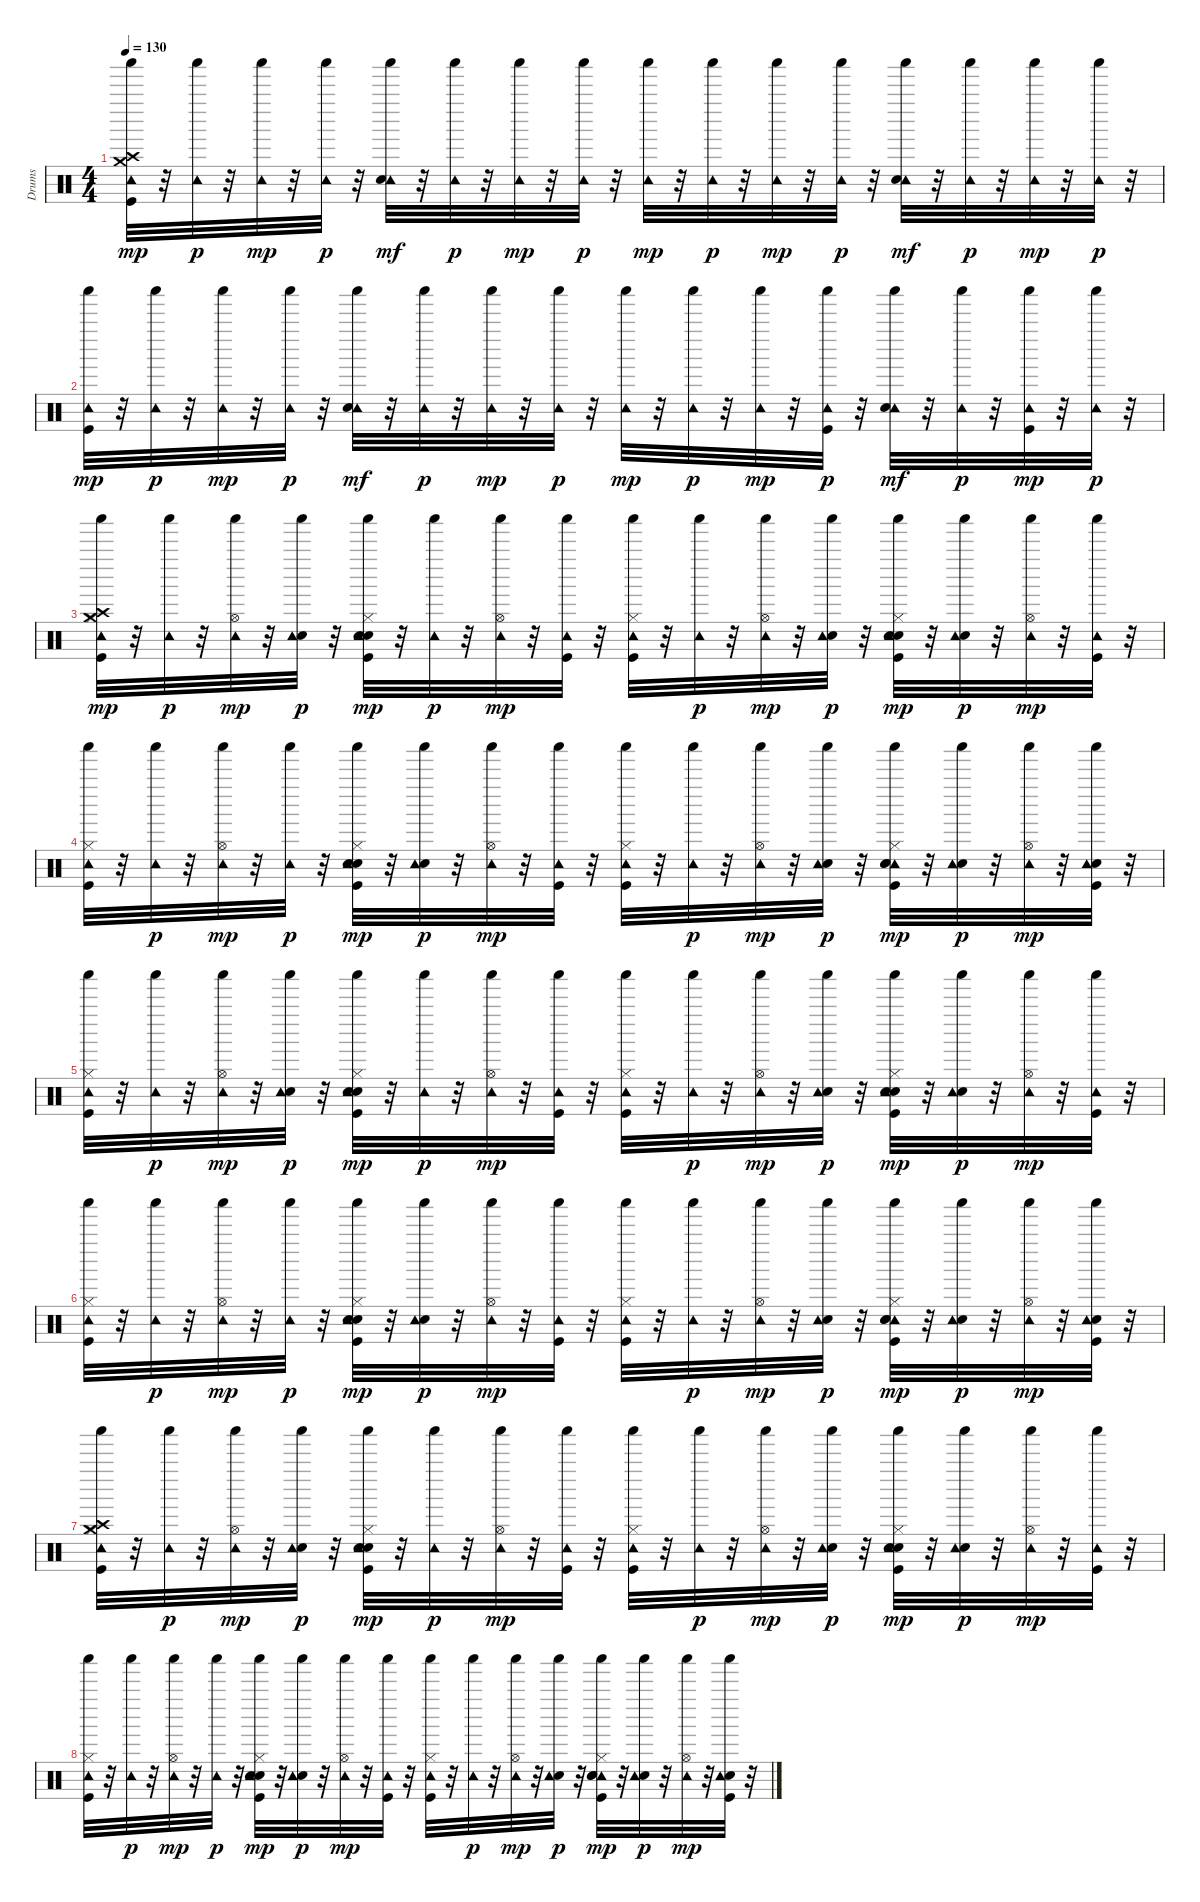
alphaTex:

\track ("Drums" "Drums") {instrument percussion}
\staff {score}
\articulation defaults
\ts (4 4)
\tempo 130
\clef neutral
\ks c
("Kick (hit)" "Crash high (hit)" "Crash medium (hit)" "Tambourine (hit)" "Shaker (hit)").32{dy mp} r.32 ("Tambourine (hit)" "Shaker (hit)").32{dy p} r.32 ("Tambourine (hit)" "Shaker (hit)").32{dy mp} r.32 ("Tambourine (hit)" "Shaker (hit)").32{dy p} r.32 ("Tambourine (hit)" "Shaker (hit)" "Hand Clap (hit)").32{dy mf} r.32 ("Tambourine (hit)" "Shaker (hit)").32{dy p} r.32 ("Tambourine (hit)" "Shaker (hit)").32{dy mp} r.32 ("Tambourine (hit)" "Shaker (hit)").32{dy p} r.32 ("Tambourine (hit)" "Shaker (hit)").32{dy mp} r.32 ("Tambourine (hit)" "Shaker (hit)").32{dy p} r.32 ("Tambourine (hit)" "Shaker (hit)").32{dy mp} r.32 ("Tambourine (hit)" "Shaker (hit)").32{dy p} r.32 ("Tambourine (hit)" "Shaker (hit)" "Hand Clap (hit)").32{dy mf} r.32 ("Tambourine (hit)" "Shaker (hit)").32{dy p} r.32 ("Tambourine (hit)" "Shaker (hit)").32{dy mp} r.32 ("Tambourine (hit)" "Shaker (hit)").32{dy p} r.32 |
("Tambourine (hit)" "Shaker (hit)" "Kick (hit)").32{dy mp} r.32 ("Tambourine (hit)" "Shaker (hit)").32{dy p} r.32 ("Tambourine (hit)" "Shaker (hit)").32{dy mp} r.32 ("Tambourine (hit)" "Shaker (hit)").32{dy p} r.32 ("Tambourine (hit)" "Shaker (hit)" "Hand Clap (hit)").32{dy mf} r.32 ("Tambourine (hit)" "Shaker (hit)").32{dy p} r.32 ("Tambourine (hit)" "Shaker (hit)").32{dy mp} r.32 ("Tambourine (hit)" "Shaker (hit)").32{dy p} r.32 ("Tambourine (hit)" "Shaker (hit)").32{dy mp} r.32 ("Tambourine (hit)" "Shaker (hit)").32{dy p} r.32 ("Tambourine (hit)" "Shaker (hit)").32{dy mp} r.32 ("Tambourine (hit)" "Shaker (hit)" "Kick (hit)").32{dy p} r.32 ("Tambourine (hit)" "Shaker (hit)" "Hand Clap (hit)").32{dy mf} r.32 ("Tambourine (hit)" "Shaker (hit)").32{dy p} r.32 ("Tambourine (hit)" "Shaker (hit)" "Kick (hit)").32{dy mp} r.32 ("Tambourine (hit)" "Shaker (hit)").32{dy p} r.32 |
("Kick (hit)" "Hi-Hat (closed)" "Crash high (hit)" "Crash medium (hit)" "Tambourine (hit)" "Shaker (hit)").32{dy mp} r.32 ("Tambourine (hit)" "Shaker (hit)").32{dy p} r.32 ("Tambourine (hit)" "Hi-Hat (open)" "Shaker (hit)").32{dy mp} r.32 ("Electric Snare (hit)" "Tambourine (hit)" "Shaker (hit)").32{dy p} r.32 ("Kick (hit)" "Hi-Hat (closed)" "Hand Clap (hit)" "Tambourine (hit)" "Shaker (hit)" "Snare (hit) 2").32{dy mp} r.32 ("Tambourine (hit)" "Shaker (hit)").32{dy p} r.32 ("Tambourine (hit)" "Hi-Hat (open)" "Shaker (hit)").32{dy mp} r.32 ("Tambourine (hit)" "Shaker (hit)" "Kick (hit)").32 r.32 ("Hi-Hat (closed)" "Tambourine (hit)" "Shaker (hit)" "Kick (hit)").32 r.32 ("Tambourine (hit)" "Shaker (hit)").32{dy p} r.32 ("Tambourine (hit)" "Hi-Hat (open)" "Shaker (hit)").32{dy mp} r.32 ("Electric Snare (hit)" "Tambourine (hit)" "Shaker (hit)").32{dy p} r.32 ("Kick (hit)" "Hi-Hat (closed)" "Hand Clap (hit)" "Tambourine (hit)" "Shaker (hit)" "Snare (hit) 2").32{dy mp} r.32 ("Electric Snare (hit)" "Tambourine (hit)" "Shaker (hit)").32{dy p} r.32 ("Tambourine (hit)" "Hi-Hat (open)" "Shaker (hit)").32{dy mp} r.32 ("Tambourine (hit)" "Shaker (hit)" "Kick (hit)").32 r.32 |
("Kick (hit)" "Hi-Hat (closed)" "Tambourine (hit)" "Shaker (hit)").32 r.32 ("Tambourine (hit)" "Shaker (hit)").32{dy p} r.32 ("Tambourine (hit)" "Hi-Hat (open)" "Shaker (hit)").32{dy mp} r.32 ("Tambourine (hit)" "Shaker (hit)").32{dy p} r.32 ("Kick (hit)" "Hi-Hat (closed)" "Hand Clap (hit)" "Tambourine (hit)" "Shaker (hit)" "Snare (hit) 2").32{dy mp} r.32 ("Electric Snare (hit)" "Tambourine (hit)" "Shaker (hit)").32{dy p} r.32 ("Tambourine (hit)" "Hi-Hat (open)" "Shaker (hit)").32{dy mp} r.32 ("Tambourine (hit)" "Shaker (hit)" "Kick (hit)").32 r.32 ("Kick (hit)" "Hi-Hat (closed)" "Tambourine (hit)" "Shaker (hit)").32 r.32 ("Tambourine (hit)" "Shaker (hit)").32{dy p} r.32 ("Tambourine (hit)" "Hi-Hat (open)" "Shaker (hit)").32{dy mp} r.32 ("Electric Snare (hit)" "Tambourine (hit)" "Shaker (hit)").32{dy p} r.32 ("Kick (hit)" "Hi-Hat (closed)" "Tambourine (hit)" "Shaker (hit)" "Hand Clap (hit)" "Snare (hit) 2").32{dy mp} r.32 ("Electric Snare (hit)" "Tambourine (hit)" "Shaker (hit)").32{dy p} r.32 ("Tambourine (hit)" "Hi-Hat (open)" "Shaker (hit)").32{dy mp} r.32 ("Electric Snare (hit)" "Tambourine (hit)" "Shaker (hit)" "Kick (hit)").32 r.32 |
("Kick (hit)" "Hi-Hat (closed)" "Tambourine (hit)" "Shaker (hit)").32 r.32 ("Tambourine (hit)" "Shaker (hit)").32{dy p} r.32 ("Tambourine (hit)" "Hi-Hat (open)" "Shaker (hit)").32{dy mp} r.32 ("Electric Snare (hit)" "Tambourine (hit)" "Shaker (hit)").32{dy p} r.32 ("Kick (hit)" "Hi-Hat (closed)" "Hand Clap (hit)" "Tambourine (hit)" "Shaker (hit)" "Snare (hit) 2").32{dy mp} r.32 ("Tambourine (hit)" "Shaker (hit)").32{dy p} r.32 ("Tambourine (hit)" "Hi-Hat (open)" "Shaker (hit)").32{dy mp} r.32 ("Tambourine (hit)" "Shaker (hit)" "Kick (hit)").32 r.32 ("Kick (hit)" "Hi-Hat (closed)" "Tambourine (hit)" "Shaker (hit)").32 r.32 ("Tambourine (hit)" "Shaker (hit)").32{dy p} r.32 ("Tambourine (hit)" "Hi-Hat (open)" "Shaker (hit)").32{dy mp} r.32 ("Electric Snare (hit)" "Tambourine (hit)" "Shaker (hit)").32{dy p} r.32 ("Kick (hit)" "Hi-Hat (closed)" "Hand Clap (hit)" "Tambourine (hit)" "Shaker (hit)" "Snare (hit) 2").32{dy mp} r.32 ("Electric Snare (hit)" "Tambourine (hit)" "Shaker (hit)").32{dy p} r.32 ("Tambourine (hit)" "Hi-Hat (open)" "Shaker (hit)").32{dy mp} r.32 ("Tambourine (hit)" "Shaker (hit)" "Kick (hit)").32 r.32 |
("Kick (hit)" "Hi-Hat (closed)" "Tambourine (hit)" "Shaker (hit)").32 r.32 ("Tambourine (hit)" "Shaker (hit)").32{dy p} r.32 ("Tambourine (hit)" "Hi-Hat (open)" "Shaker (hit)").32{dy mp} r.32 ("Tambourine (hit)" "Shaker (hit)").32{dy p} r.32 ("Kick (hit)" "Hi-Hat (closed)" "Hand Clap (hit)" "Tambourine (hit)" "Shaker (hit)" "Snare (hit) 2").32{dy mp} r.32 ("Electric Snare (hit)" "Tambourine (hit)" "Shaker (hit)").32{dy p} r.32 ("Tambourine (hit)" "Hi-Hat (open)" "Shaker (hit)").32{dy mp} r.32 ("Tambourine (hit)" "Shaker (hit)" "Kick (hit)").32 r.32 ("Kick (hit)" "Hi-Hat (closed)" "Tambourine (hit)" "Shaker (hit)").32 r.32 ("Tambourine (hit)" "Shaker (hit)").32{dy p} r.32 ("Tambourine (hit)" "Hi-Hat (open)" "Shaker (hit)").32{dy mp} r.32 ("Electric Snare (hit)" "Tambourine (hit)" "Shaker (hit)").32{dy p} r.32 ("Kick (hit)" "Hi-Hat (closed)" "Tambourine (hit)" "Shaker (hit)" "Hand Clap (hit)" "Snare (hit) 2").32{dy mp} r.32 ("Electric Snare (hit)" "Tambourine (hit)" "Shaker (hit)").32{dy p} r.32 ("Tambourine (hit)" "Hi-Hat (open)" "Shaker (hit)").32{dy mp} r.32 ("Electric Snare (hit)" "Tambourine (hit)" "Shaker (hit)" "Kick (hit)").32 r.32 |
("Kick (hit)" "Hi-Hat (closed)" "Crash high (hit)" "Crash medium (hit)" "Tambourine (hit)" "Shaker (hit)").32 r.32 ("Tambourine (hit)" "Shaker (hit)").32{dy p} r.32 ("Tambourine (hit)" "Hi-Hat (open)" "Shaker (hit)").32{dy mp} r.32 ("Electric Snare (hit)" "Tambourine (hit)" "Shaker (hit)").32{dy p} r.32 ("Kick (hit)" "Hi-Hat (closed)" "Hand Clap (hit)" "Tambourine (hit)" "Shaker (hit)" "Snare (hit) 2").32{dy mp} r.32 ("Tambourine (hit)" "Shaker (hit)").32{dy p} r.32 ("Tambourine (hit)" "Hi-Hat (open)" "Shaker (hit)").32{dy mp} r.32 ("Tambourine (hit)" "Shaker (hit)" "Kick (hit)").32 r.32 ("Kick (hit)" "Hi-Hat (closed)" "Tambourine (hit)" "Shaker (hit)").32 r.32 ("Tambourine (hit)" "Shaker (hit)").32{dy p} r.32 ("Tambourine (hit)" "Hi-Hat (open)" "Shaker (hit)").32{dy mp} r.32 ("Electric Snare (hit)" "Tambourine (hit)" "Shaker (hit)").32{dy p} r.32 ("Kick (hit)" "Hi-Hat (closed)" "Hand Clap (hit)" "Tambourine (hit)" "Shaker (hit)" "Snare (hit) 2").32{dy mp} r.32 ("Electric Snare (hit)" "Tambourine (hit)" "Shaker (hit)").32{dy p} r.32 ("Tambourine (hit)" "Hi-Hat (open)" "Shaker (hit)").32{dy mp} r.32 ("Tambourine (hit)" "Shaker (hit)" "Kick (hit)").32 r.32 |
("Kick (hit)" "Hi-Hat (closed)" "Tambourine (hit)" "Shaker (hit)").32 r.32 ("Tambourine (hit)" "Shaker (hit)").32{dy p} r.32 ("Tambourine (hit)" "Hi-Hat (open)" "Shaker (hit)").32{dy mp} r.32 ("Tambourine (hit)" "Shaker (hit)").32{dy p} r.32 ("Kick (hit)" "Hi-Hat (closed)" "Hand Clap (hit)" "Tambourine (hit)" "Shaker (hit)" "Snare (hit) 2").32{dy mp} r.32 ("Electric Snare (hit)" "Tambourine (hit)" "Shaker (hit)").32{dy p} r.32 ("Tambourine (hit)" "Hi-Hat (open)" "Shaker (hit)").32{dy mp} r.32 ("Tambourine (hit)" "Shaker (hit)" "Kick (hit)").32 r.32 ("Kick (hit)" "Hi-Hat (closed)" "Tambourine (hit)" "Shaker (hit)").32 r.32 ("Tambourine (hit)" "Shaker (hit)").32{dy p} r.32 ("Tambourine (hit)" "Hi-Hat (open)" "Shaker (hit)").32{dy mp} r.32 ("Electric Snare (hit)" "Tambourine (hit)" "Shaker (hit)").32{dy p} r.32 ("Kick (hit)" "Hi-Hat (closed)" "Tambourine (hit)" "Shaker (hit)" "Hand Clap (hit)" "Snare (hit) 2").32{dy mp} r.32 ("Electric Snare (hit)" "Tambourine (hit)" "Shaker (hit)").32{dy p} r.32 ("Tambourine (hit)" "Hi-Hat (open)" "Shaker (hit)").32{dy mp} r.32 ("Electric Snare (hit)" "Tambourine (hit)" "Shaker (hit)" "Kick (hit)").32 r.32
